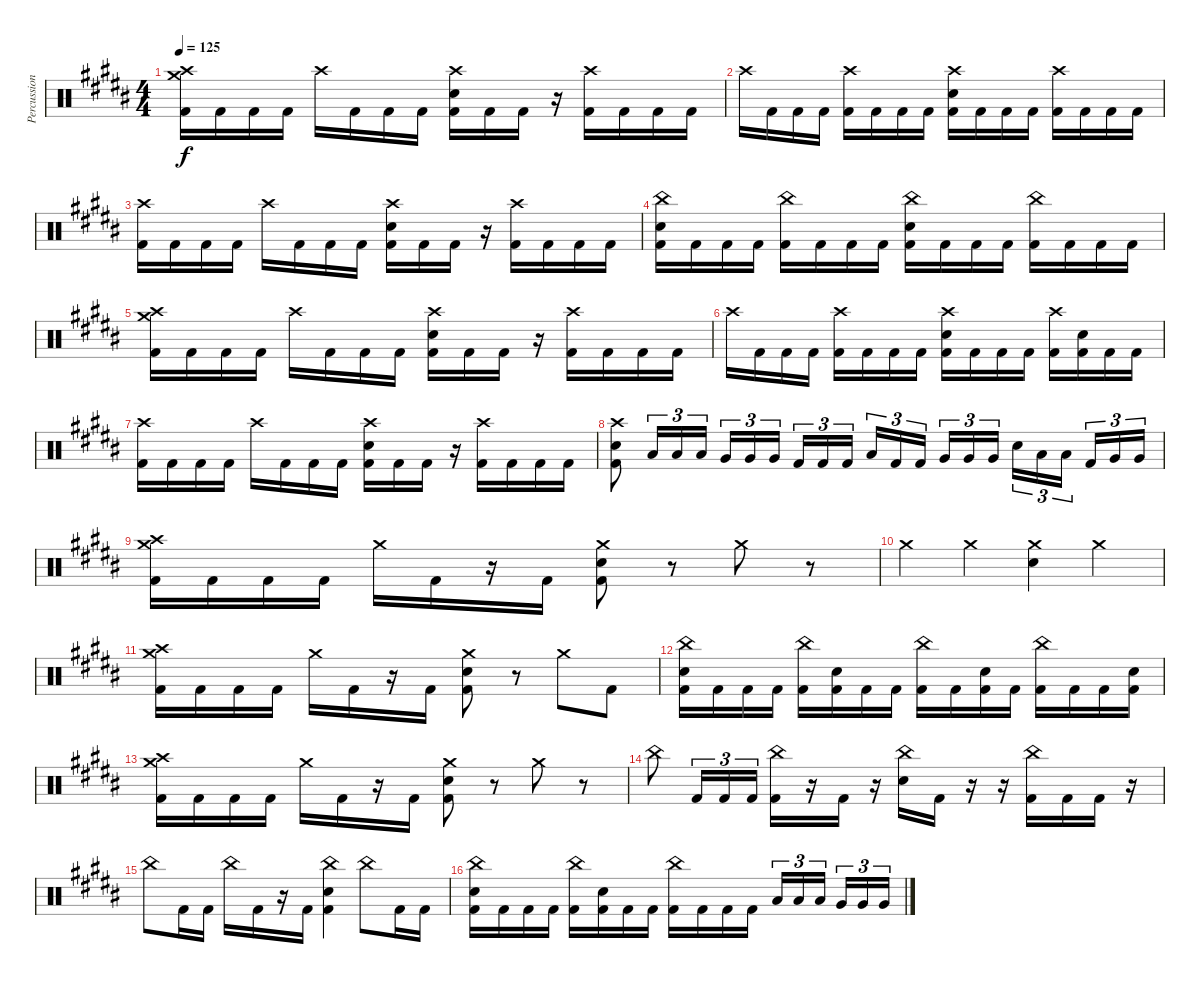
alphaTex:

\track ("Percussion" "Percussion") {instrument percussion}
\staff {score}
\articulation defaults
\ts (4 4)
\tempo 125
\clef neutral
\ks g#minor
("Crash medium (hit)" "Crash high (hit)" "Kick (hit) 2").16{dy f} "Kick (hit) 2".16 "Kick (hit) 2".16 "Kick (hit) 2".16 "Crash high (hit)".16 "Kick (hit) 2".16 "Kick (hit) 2".16 "Kick (hit) 2".16 ("Crash high (hit)" "Electric Snare (hit)" "Kick (hit) 2").16 "Kick (hit) 2".16 "Kick (hit) 2".16 r.16 ("Crash high (hit)" "Kick (hit) 2").16 "Kick (hit) 2".16 "Kick (hit) 2".16 "Kick (hit) 2".16 |
"Crash high (hit)".16 "Kick (hit) 2".16 "Kick (hit) 2".16 "Kick (hit) 2".16 ("Crash high (hit)" "Kick (hit) 2").16 "Kick (hit) 2".16 "Kick (hit) 2".16 "Kick (hit) 2".16 ("Crash high (hit)" "Electric Snare (hit)" "Kick (hit) 2").16 "Kick (hit) 2".16 "Kick (hit) 2".16 "Kick (hit) 2".16 ("Crash high (hit)" "Kick (hit) 2").16 "Kick (hit) 2".16 "Kick (hit) 2".16 "Kick (hit) 2".16 |
("Crash high (hit)" "Kick (hit) 2").16 "Kick (hit) 2".16 "Kick (hit) 2".16 "Kick (hit) 2".16 "Crash high (hit)".16 "Kick (hit) 2".16 "Kick (hit) 2".16 "Kick (hit) 2".16 ("Crash high (hit)" "Electric Snare (hit)" "Kick (hit) 2").16 "Kick (hit) 2".16 "Kick (hit) 2".16 r.16 ("Crash high (hit)" "Kick (hit) 2").16 "Kick (hit) 2".16 "Kick (hit) 2".16 "Kick (hit) 2".16 |
("China (hit)" "Electric Snare (hit)" "Kick (hit) 2").16 "Kick (hit) 2".16 "Kick (hit) 2".16 "Kick (hit) 2".16 ("China (hit)" "Kick (hit) 2").16 "Kick (hit) 2".16 "Kick (hit) 2".16 "Kick (hit) 2".16 ("China (hit)" "Electric Snare (hit)" "Kick (hit) 2").16 "Kick (hit) 2".16 "Kick (hit) 2".16 "Kick (hit) 2".16 ("China (hit)" "Kick (hit) 2").16 "Kick (hit) 2".16 "Kick (hit) 2".16 "Kick (hit) 2".16 |
("Crash medium (hit)" "Crash high (hit)" "Kick (hit) 2").16 "Kick (hit) 2".16 "Kick (hit) 2".16 "Kick (hit) 2".16 "Crash high (hit)".16 "Kick (hit) 2".16 "Kick (hit) 2".16 "Kick (hit) 2".16 ("Crash high (hit)" "Electric Snare (hit)" "Kick (hit) 2").16 "Kick (hit) 2".16 "Kick (hit) 2".16 r.16 ("Crash high (hit)" "Kick (hit) 2").16 "Kick (hit) 2".16 "Kick (hit) 2".16 "Kick (hit) 2".16 |
"Crash high (hit)".16 "Kick (hit) 2".16 "Kick (hit) 2".16 "Kick (hit) 2".16 ("Crash high (hit)" "Kick (hit) 2").16 "Kick (hit) 2".16 "Kick (hit) 2".16 "Kick (hit) 2".16 ("Crash high (hit)" "Electric Snare (hit)" "Kick (hit) 2").16 "Kick (hit) 2".16 "Kick (hit) 2".16 "Kick (hit) 2".16 ("Crash high (hit)" "Kick (hit) 2").16 ("Electric Snare (hit)" "Kick (hit) 2").16 "Kick (hit) 2".16 "Kick (hit) 2".16 |
("Crash high (hit)" "Kick (hit) 2").16 "Kick (hit) 2".16 "Kick (hit) 2".16 "Kick (hit) 2".16 "Crash high (hit)".16 "Kick (hit) 2".16 "Kick (hit) 2".16 "Kick (hit) 2".16 ("Crash high (hit)" "Electric Snare (hit)" "Kick (hit) 2").16 "Kick (hit) 2".16 "Kick (hit) 2".16 r.16 ("Crash high (hit)" "Kick (hit) 2").16 "Kick (hit) 2".16 "Kick (hit) 2".16 "Kick (hit) 2".16 |
("Crash high (hit)" "Electric Snare (hit)" "Kick (hit) 2").8 "Low Tom (hit)".16{tu (3 2)} "Low Tom (hit)".16{tu (3 2)} "Low Tom (hit)".16{tu (3 2)} "Very Low Tom (hit)".16{tu (3 2)} "Very Low Tom (hit)".16{tu (3 2)} "Very Low Tom (hit)".16{tu (3 2) beam splitsecondary} "Kick (hit) 2".16{tu (3 2)} "Kick (hit) 2".16{tu (3 2)} "Kick (hit) 2".16{tu (3 2)} "Low Tom (hit)".16{tu (3 2)} "Kick (hit) 2".16{tu (3 2)} "Kick (hit) 2".16{tu (3 2) beam splitsecondary} "Very Low Tom (hit)".16{tu (3 2)} "Very Low Tom (hit)".16{tu (3 2)} "Very Low Tom (hit)".16{tu (3 2)} "Electric Snare (hit)".16{tu (3 2)} "Low Tom (hit)".16{tu (3 2)} "Low Tom (hit)".16{tu (3 2) beam splitsecondary} "Kick (hit) 2".16{tu (3 2)} "Very Low Tom (hit)".16{tu (3 2)} "Very Low Tom (hit)".16{tu (3 2)} |
("Crash medium (hit)" "Crash high (hit)" "Kick (hit) 2").16 "Kick (hit) 2".16 "Kick (hit) 2".16 "Kick (hit) 2".16 "Crash medium (hit)".16 "Kick (hit) 2".16 r.16 "Kick (hit) 2".16 ("Crash medium (hit)" "Electric Snare (hit)" "Kick (hit) 2").8 r.8 "Crash medium (hit)".8 r.8 |
"Crash medium (hit)".4 "Crash medium (hit)".4 ("Crash medium (hit)" "Electric Snare (hit)").4 "Crash medium (hit)".4 |
("Crash medium (hit)" "Crash high (hit)" "Kick (hit) 2").16 "Kick (hit) 2".16 "Kick (hit) 2".16 "Kick (hit) 2".16 "Crash medium (hit)".16 "Kick (hit) 2".16 r.16 "Kick (hit) 2".16 ("Crash medium (hit)" "Electric Snare (hit)" "Kick (hit) 2").8 r.8 "Crash medium (hit)".8 "Kick (hit) 2".8 |
("China (hit)" "Electric Snare (hit)" "Kick (hit) 2").16 "Kick (hit) 2".16 "Kick (hit) 2".16 "Kick (hit) 2".16 ("China (hit)" "Kick (hit) 2").16 ("Electric Snare (hit)" "Kick (hit) 2").16 "Kick (hit) 2".16 "Kick (hit) 2".16 ("China (hit)" "Kick (hit) 2").16 "Kick (hit) 2".16 ("Electric Snare (hit)" "Kick (hit) 2").16 "Kick (hit) 2".16 ("China (hit)" "Kick (hit) 2").16 "Kick (hit) 2".16 "Kick (hit) 2".16 ("Electric Snare (hit)" "Kick (hit) 2").16 |
("Crash medium (hit)" "Crash high (hit)" "Kick (hit) 2").16 "Kick (hit) 2".16 "Kick (hit) 2".16 "Kick (hit) 2".16 "Crash medium (hit)".16 "Kick (hit) 2".16 r.16 "Kick (hit) 2".16 ("Crash medium (hit)" "Electric Snare (hit)" "Kick (hit) 2").8 r.8 "Crash medium (hit)".8 r.8 |
"China (hit)".8 "Kick (hit) 2".16{tu (3 2)} "Kick (hit) 2".16{tu (3 2)} "Kick (hit) 2".16{tu (3 2)} ("China (hit)" "Kick (hit) 2").16 r.16 "Kick (hit) 2".16 r.16 ("China (hit)" "Electric Snare (hit)").16 "Kick (hit) 2".16 r.16 r.16 ("China (hit)" "Kick (hit) 2").16 "Kick (hit) 2".16 "Kick (hit) 2".16 r.16 |
"China (hit)".8 "Kick (hit) 2".16 "Kick (hit) 2".16 "China (hit)".16 "Kick (hit) 2".16 r.16 "Kick (hit) 2".16 ("China (hit)" "Electric Snare (hit)" "Kick (hit) 2").4 "China (hit)".8 "Kick (hit) 2".16 "Kick (hit) 2".16 |
("China (hit)" "Electric Snare (hit)" "Kick (hit) 2").16 "Kick (hit) 2".16 "Kick (hit) 2".16 "Kick (hit) 2".16 ("China (hit)" "Kick (hit) 2").16 ("Electric Snare (hit)" "Kick (hit) 2").16 "Kick (hit) 2".16 "Kick (hit) 2".16 ("China (hit)" "Kick (hit) 2").16 "Kick (hit) 2".16 "Kick (hit) 2".16 "Kick (hit) 2".16 "Low Tom (hit)".16{tu (3 2)} "Low Tom (hit)".16{tu (3 2)} "Low Tom (hit)".16{tu (3 2) beam splitsecondary} "Very Low Tom (hit)".16{tu (3 2)} "Very Low Tom (hit)".16{tu (3 2)} "Very Low Tom (hit)".16{tu (3 2)}
